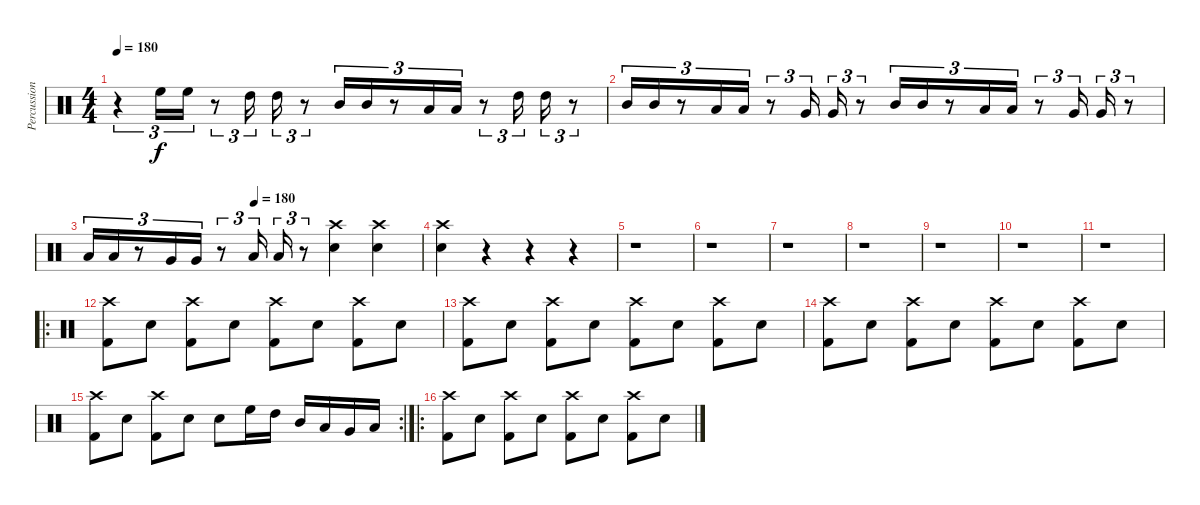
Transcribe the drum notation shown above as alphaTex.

\track ("Percussion" "Percussion") {instrument percussion}
\staff {score}
\articulation defaults
\ts (4 4)
\tempo 180
\tempo 135
\tempo 180
\clef neutral
\ks c
r.4{tu (3 2) dy f} "High Floor Tom (hit)".16{tu (3 2)} "High Floor Tom (hit)".16{tu (3 2)} r.8{tu (3 2)} "High Tom (hit)".16{tu (3 2)} "High Tom (hit)".16{tu (3 2)} r.8{tu (3 2)} "Mid Tom (hit)".16{tu (3 2)} "Mid Tom (hit)".16{tu (3 2)} r.8{tu (3 2)} "Low Tom (hit)".16{tu (3 2)} "Low Tom (hit)".16{tu (3 2)} r.8{tu (3 2)} "High Tom (hit)".16{tu (3 2)} "High Tom (hit)".16{tu (3 2)} r.8{tu (3 2)} |
"Mid Tom (hit)".16{tu (3 2)} "Mid Tom (hit)".16{tu (3 2)} r.8{tu (3 2)} "Low Tom (hit)".16{tu (3 2)} "Low Tom (hit)".16{tu (3 2)} r.8{tu (3 2)} "Very Low Tom (hit)".16{tu (3 2)} "Very Low Tom (hit)".16{tu (3 2)} r.8{tu (3 2)} "Mid Tom (hit)".16{tu (3 2)} "Mid Tom (hit)".16{tu (3 2)} r.8{tu (3 2)} "Low Tom (hit)".16{tu (3 2)} "Low Tom (hit)".16{tu (3 2)} r.8{tu (3 2)} "Very Low Tom (hit)".16{tu (3 2)} "Very Low Tom (hit)".16{tu (3 2)} r.8{tu (3 2)} |
\tempo (180 0.5)
"Low Floor Tom (hit)".16{tu (3 2)} "Low Floor Tom (hit)".16{tu (3 2)} r.8{tu (3 2)} "Very Low Tom (hit)".16{tu (3 2)} "Very Low Tom (hit)".16{tu (3 2)} r.8{tu (3 2)} "Low Floor Tom (hit)".16{tu (3 2)} "Low Floor Tom (hit)".16{tu (3 2)} r.8{tu (3 2)} ("Crash high (hit)" "Electric Snare (hit)").4 ("Crash high (hit)" "Electric Snare (hit)").4 |
("Crash high (hit)" "Electric Snare (hit)").4 r.4 r.4 r.4 |
r.1 |
r.1 |
r.1 |
r.1 |
r.1 |
r.1 |
r.1 |
\ro
("Crash high (hit)" "Kick (hit) 2").8 "Electric Snare (hit)".8 ("Crash high (hit)" "Kick (hit) 2").8 "Electric Snare (hit)".8 ("Crash high (hit)" "Kick (hit) 2").8 "Electric Snare (hit)".8 ("Crash high (hit)" "Kick (hit) 2").8 "Electric Snare (hit)".8 |
("Crash high (hit)" "Kick (hit) 2").8 "Electric Snare (hit)".8 ("Crash high (hit)" "Kick (hit) 2").8 "Electric Snare (hit)".8 ("Crash high (hit)" "Kick (hit) 2").8 "Electric Snare (hit)".8 ("Crash high (hit)" "Kick (hit) 2").8 "Electric Snare (hit)".8 |
("Crash high (hit)" "Kick (hit) 2").8 "Electric Snare (hit)".8 ("Crash high (hit)" "Kick (hit) 2").8 "Electric Snare (hit)".8 ("Crash high (hit)" "Kick (hit) 2").8 "Electric Snare (hit)".8 ("Crash high (hit)" "Kick (hit) 2").8 "Electric Snare (hit)".8 |
\rc 2
("Crash high (hit)" "Kick (hit) 2").8 "Electric Snare (hit)".8 ("Crash high (hit)" "Kick (hit) 2").8 "Electric Snare (hit)".8 "Electric Snare (hit)".8 "High Floor Tom (hit)".16 "High Tom (hit)".16 "Mid Tom (hit)".16 "Low Tom (hit)".16 "Very Low Tom (hit)".16 "Low Floor Tom (hit)".16 |
\ro
("Crash high (hit)" "Kick (hit) 2").8 "Electric Snare (hit)".8 ("Crash high (hit)" "Kick (hit) 2").8 "Electric Snare (hit)".8 ("Crash high (hit)" "Kick (hit) 2").8 "Electric Snare (hit)".8 ("Crash high (hit)" "Kick (hit) 2").8 "Electric Snare (hit)".8
